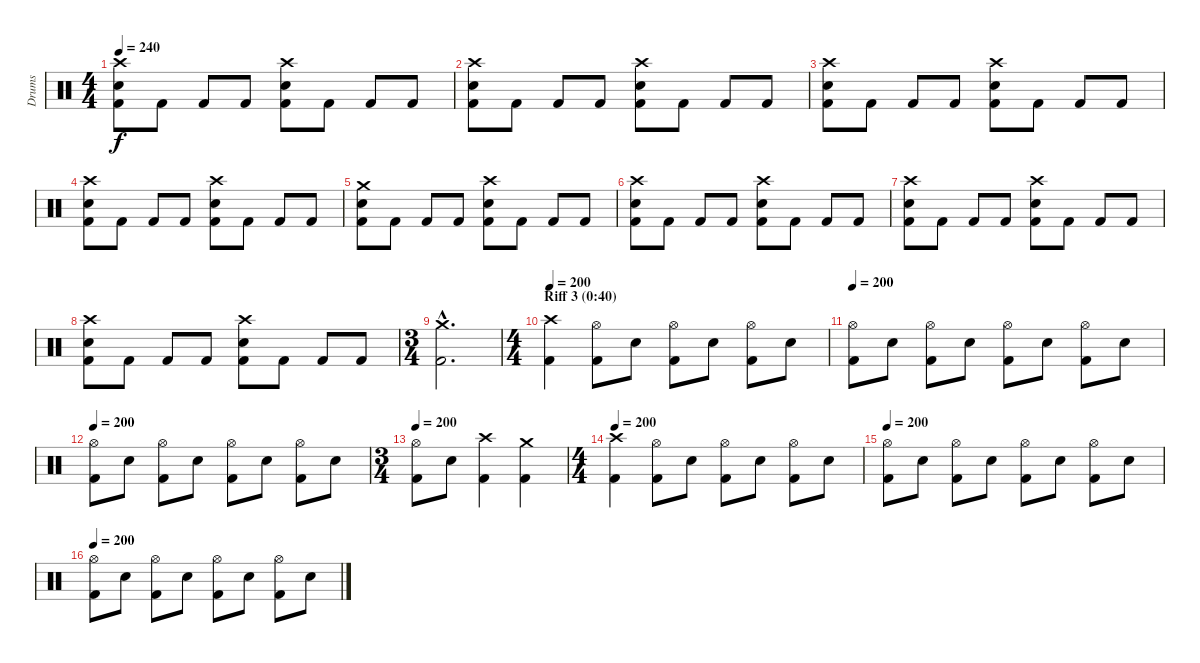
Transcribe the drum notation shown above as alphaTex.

\track ("Drums" "Drums") {instrument percussion}
\staff {score}
\articulation defaults
\ts (4 4)
\tempo 240
\clef neutral
\ks c
("Crash high (hit)" "Electric Snare (hit)" "Kick (hit) 2").8{dy f} "Kick (hit) 2".8 "Kick (hit) 2".8 "Kick (hit) 2".8 ("Crash high (hit)" "Electric Snare (hit)" "Kick (hit) 2").8 "Kick (hit) 2".8 "Kick (hit) 2".8 "Kick (hit) 2".8 |
("Crash high (hit)" "Electric Snare (hit)" "Kick (hit) 2").8 "Kick (hit) 2".8 "Kick (hit) 2".8 "Kick (hit) 2".8 ("Crash high (hit)" "Electric Snare (hit)" "Kick (hit) 2").8 "Kick (hit) 2".8 "Kick (hit) 2".8 "Kick (hit) 2".8 |
("Crash high (hit)" "Electric Snare (hit)" "Kick (hit) 2").8 "Kick (hit) 2".8 "Kick (hit) 2".8 "Kick (hit) 2".8 ("Crash high (hit)" "Electric Snare (hit)" "Kick (hit) 2").8 "Kick (hit) 2".8 "Kick (hit) 2".8 "Kick (hit) 2".8 |
("Crash high (hit)" "Electric Snare (hit)" "Kick (hit) 2").8 "Kick (hit) 2".8 "Kick (hit) 2".8 "Kick (hit) 2".8 ("Crash high (hit)" "Electric Snare (hit)" "Kick (hit) 2").8 "Kick (hit) 2".8 "Kick (hit) 2".8 "Kick (hit) 2".8 |
("Crash medium (hit)" "Electric Snare (hit)" "Kick (hit) 2").8 "Kick (hit) 2".8 "Kick (hit) 2".8 "Kick (hit) 2".8 ("Crash high (hit)" "Electric Snare (hit)" "Kick (hit) 2").8 "Kick (hit) 2".8 "Kick (hit) 2".8 "Kick (hit) 2".8 |
("Crash high (hit)" "Electric Snare (hit)" "Kick (hit) 2").8 "Kick (hit) 2".8 "Kick (hit) 2".8 "Kick (hit) 2".8 ("Crash high (hit)" "Electric Snare (hit)" "Kick (hit) 2").8 "Kick (hit) 2".8 "Kick (hit) 2".8 "Kick (hit) 2".8 |
("Crash high (hit)" "Electric Snare (hit)" "Kick (hit) 2").8 "Kick (hit) 2".8 "Kick (hit) 2".8 "Kick (hit) 2".8 ("Crash high (hit)" "Electric Snare (hit)" "Kick (hit) 2").8 "Kick (hit) 2".8 "Kick (hit) 2".8 "Kick (hit) 2".8 |
("Crash high (hit)" "Electric Snare (hit)" "Kick (hit) 2").8 "Kick (hit) 2".8 "Kick (hit) 2".8 "Kick (hit) 2".8 ("Crash high (hit)" "Electric Snare (hit)" "Kick (hit) 2").8 "Kick (hit) 2".8 "Kick (hit) 2".8 "Kick (hit) 2".8 |
\ts (3 4)
("Crash medium (hit)"{hac} "Kick (hit) 2"{hac}).2{d} |
\ts (4 4)
\section ("" "Riff 3 (0:40)")
\tempo 200
("Crash high (hit)" "Kick (hit) 2").4 ("Hi-Hat (open)" "Kick (hit) 2").8 "Electric Snare (hit)".8 ("Hi-Hat (open)" "Kick (hit) 2").8 "Electric Snare (hit)".8 ("Hi-Hat (open)" "Kick (hit) 2").8 "Electric Snare (hit)".8 |
\tempo 200
("Hi-Hat (open)" "Kick (hit) 2").8 "Electric Snare (hit)".8 ("Hi-Hat (open)" "Kick (hit) 2").8 "Electric Snare (hit)".8 ("Hi-Hat (open)" "Kick (hit) 2").8 "Electric Snare (hit)".8 ("Hi-Hat (open)" "Kick (hit) 2").8 "Electric Snare (hit)".8 |
\tempo 200
("Hi-Hat (open)" "Kick (hit) 2").8 "Electric Snare (hit)".8 ("Hi-Hat (open)" "Kick (hit) 2").8 "Electric Snare (hit)".8 ("Hi-Hat (open)" "Kick (hit) 2").8 "Electric Snare (hit)".8 ("Hi-Hat (open)" "Kick (hit) 2").8 "Electric Snare (hit)".8 |
\ts (3 4)
\tempo 200
("Hi-Hat (open)" "Kick (hit) 2").8 "Electric Snare (hit)".8 ("Crash high (hit)" "Kick (hit) 2").4 ("Crash medium (hit)" "Kick (hit) 2").4 |
\ts (4 4)
\tempo 200
("Crash high (hit)" "Kick (hit) 2").4 ("Hi-Hat (open)" "Kick (hit) 2").8 "Electric Snare (hit)".8 ("Hi-Hat (open)" "Kick (hit) 2").8 "Electric Snare (hit)".8 ("Hi-Hat (open)" "Kick (hit) 2").8 "Electric Snare (hit)".8 |
\tempo 200
("Hi-Hat (open)" "Kick (hit) 2").8 "Electric Snare (hit)".8 ("Hi-Hat (open)" "Kick (hit) 2").8 "Electric Snare (hit)".8 ("Hi-Hat (open)" "Kick (hit) 2").8 "Electric Snare (hit)".8 ("Hi-Hat (open)" "Kick (hit) 2").8 "Electric Snare (hit)".8 |
\tempo 200
("Hi-Hat (open)" "Kick (hit) 2").8 "Electric Snare (hit)".8 ("Hi-Hat (open)" "Kick (hit) 2").8 "Electric Snare (hit)".8 ("Hi-Hat (open)" "Kick (hit) 2").8 "Electric Snare (hit)".8 ("Hi-Hat (open)" "Kick (hit) 2").8 "Electric Snare (hit)".8
